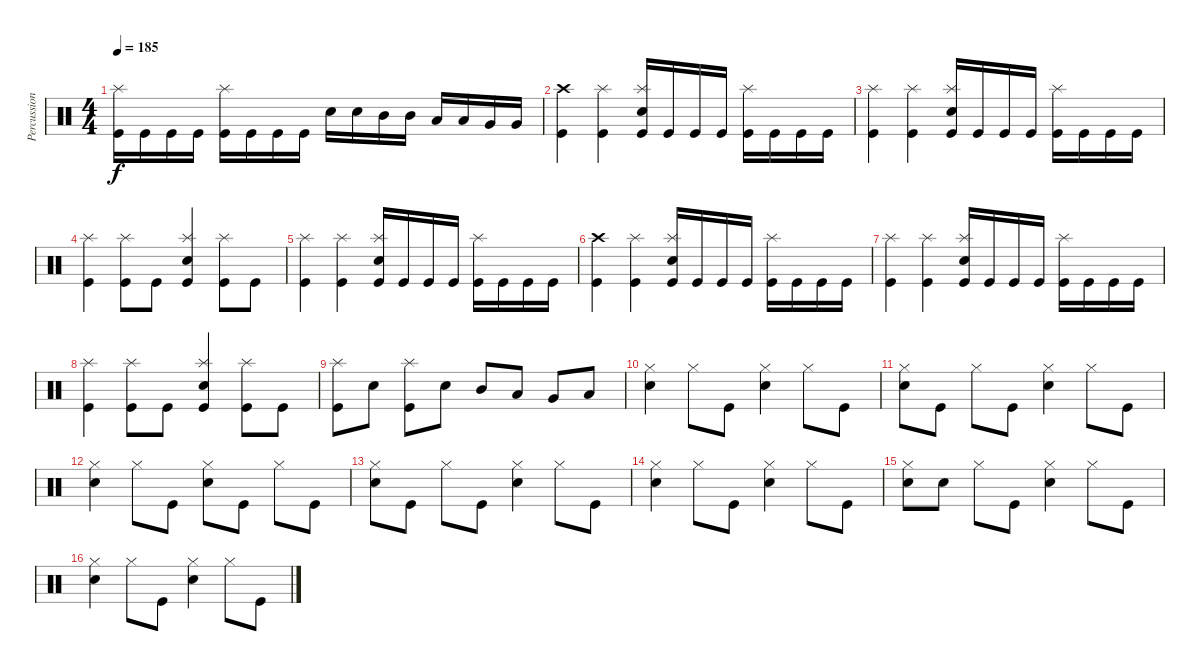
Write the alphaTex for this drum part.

\track ("Percussions" "Percussion") {instrument percussion}
\staff {score}
\articulation defaults
\ts (4 4)
\tempo 185
\clef neutral
\ks c
("Kick (hit)" "Splash (hit)").16{dy f} "Kick (hit)".16 "Kick (hit)".16 "Kick (hit)".16 ("Kick (hit)" "Splash (hit)").16 "Kick (hit)".16 "Kick (hit)".16 "Kick (hit)".16 "Electric Snare (hit)".16 "Electric Snare (hit)".16 "Mid Tom (hit)".16 "Mid Tom (hit)".16 "Low Tom (hit)".16 "Low Tom (hit)".16 "Very Low Tom (hit)".16 "Very Low Tom (hit)".16 |
("Kick (hit)" "Crash high (hit)").4 ("Kick (hit)" "Splash (hit)").4 ("Kick (hit)" "Electric Snare (hit)" "Splash (hit)").16 "Kick (hit)".16 "Kick (hit)".16 "Kick (hit)".16 ("Kick (hit)" "Splash (hit)").16 "Kick (hit)".16 "Kick (hit)".16 "Kick (hit)".16 |
("Kick (hit)" "Splash (hit)").4 ("Kick (hit)" "Splash (hit)").4 ("Kick (hit)" "Electric Snare (hit)" "Splash (hit)").16 "Kick (hit)".16 "Kick (hit)".16 "Kick (hit)".16 ("Kick (hit)" "Splash (hit)").16 "Kick (hit)".16 "Kick (hit)".16 "Kick (hit)".16 |
("Kick (hit)" "Splash (hit)").4 ("Kick (hit)" "Splash (hit)").8 "Kick (hit)".8 ("Kick (hit)" "Electric Snare (hit)" "Splash (hit)").4 ("Kick (hit)" "Splash (hit)").8 "Kick (hit)".8 |
("Kick (hit)" "Splash (hit)").4 ("Kick (hit)" "Splash (hit)").4 ("Kick (hit)" "Electric Snare (hit)" "Splash (hit)").16 "Kick (hit)".16 "Kick (hit)".16 "Kick (hit)".16 ("Kick (hit)" "Splash (hit)").16 "Kick (hit)".16 "Kick (hit)".16 "Kick (hit)".16 |
("Kick (hit)" "Crash high (hit)").4 ("Kick (hit)" "Splash (hit)").4 ("Kick (hit)" "Electric Snare (hit)" "Splash (hit)").16 "Kick (hit)".16 "Kick (hit)".16 "Kick (hit)".16 ("Kick (hit)" "Splash (hit)").16 "Kick (hit)".16 "Kick (hit)".16 "Kick (hit)".16 |
("Kick (hit)" "Splash (hit)").4 ("Kick (hit)" "Splash (hit)").4 ("Kick (hit)" "Electric Snare (hit)" "Splash (hit)").16 "Kick (hit)".16 "Kick (hit)".16 "Kick (hit)".16 ("Kick (hit)" "Splash (hit)").16 "Kick (hit)".16 "Kick (hit)".16 "Kick (hit)".16 |
("Kick (hit)" "Splash (hit)").4 ("Kick (hit)" "Splash (hit)").8 "Kick (hit)".8 ("Kick (hit)" "Electric Snare (hit)" "Splash (hit)").4 ("Kick (hit)" "Splash (hit)").8 "Kick (hit)".8 |
("Kick (hit)" "Splash (hit)").8 "Electric Snare (hit)".8 ("Kick (hit)" "Splash (hit)").8 "Electric Snare (hit)".8 "Mid Tom (hit)".8 "Low Tom (hit)".8 "Very Low Tom (hit)".8 "Low Floor Tom (hit)".8 |
("Electric Snare (hit)" "Hi-Hat (closed)").4 "Hi-Hat (closed)".8 "Kick (hit)".8 ("Electric Snare (hit)" "Hi-Hat (closed)").4 "Hi-Hat (closed)".8 "Kick (hit)".8 |
("Electric Snare (hit)" "Hi-Hat (closed)").8 "Kick (hit)".8 "Hi-Hat (closed)".8 "Kick (hit)".8 ("Electric Snare (hit)" "Hi-Hat (closed)").4 "Hi-Hat (closed)".8 "Kick (hit)".8 |
("Electric Snare (hit)" "Hi-Hat (closed)").4 "Hi-Hat (closed)".8 "Kick (hit)".8 ("Electric Snare (hit)" "Hi-Hat (closed)").8 "Kick (hit)".8 "Hi-Hat (closed)".8 "Kick (hit)".8 |
("Electric Snare (hit)" "Hi-Hat (closed)").8 "Kick (hit)".8 "Hi-Hat (closed)".8 "Kick (hit)".8 ("Electric Snare (hit)" "Hi-Hat (closed)").4 "Hi-Hat (closed)".8 "Kick (hit)".8 |
("Electric Snare (hit)" "Hi-Hat (closed)").4 "Hi-Hat (closed)".8 "Kick (hit)".8 ("Electric Snare (hit)" "Hi-Hat (closed)").4 "Hi-Hat (closed)".8 "Kick (hit)".8 |
("Electric Snare (hit)" "Hi-Hat (closed)").8 "Electric Snare (hit)".8 "Hi-Hat (closed)".8 "Kick (hit)".8 ("Electric Snare (hit)" "Hi-Hat (closed)").4 "Hi-Hat (closed)".8 "Kick (hit)".8 |
("Electric Snare (hit)" "Hi-Hat (closed)").4 "Hi-Hat (closed)".8 "Kick (hit)".8 ("Electric Snare (hit)" "Hi-Hat (closed)").4 "Hi-Hat (closed)".8 "Kick (hit)".8
